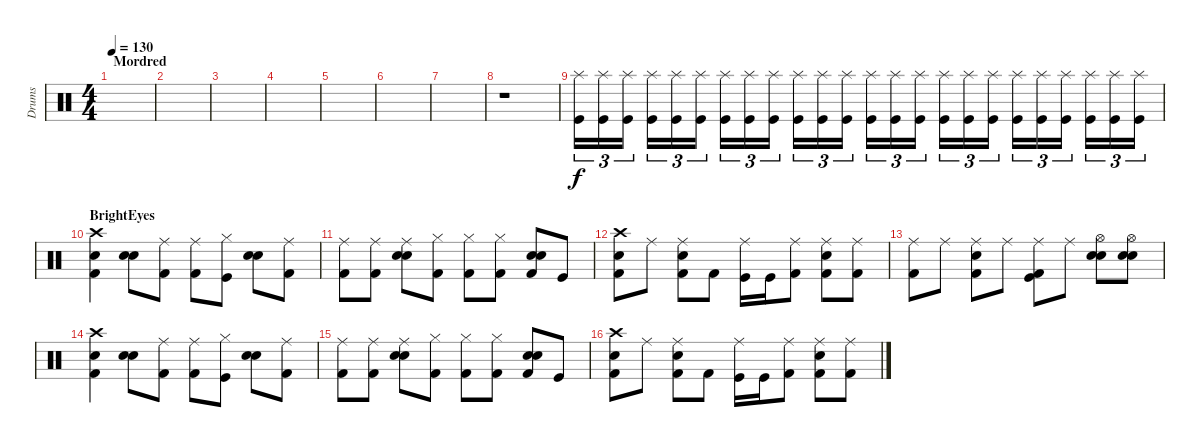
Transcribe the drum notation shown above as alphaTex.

\track ("Drums" "Drums") {instrument percussion}
\staff {score}
\articulation defaults
\ts (4 4)
\section ("" "Mordred")
\tempo 130
\tempo 95
\tempo 130
\clef neutral
\ks c
|
|
|
|
|
|
|
r.1{volume 0} |
("Kick (hit)" "Splash (hit)").16{tu (3 2) volume 13} ("Kick (hit)" "Splash (hit)").16{tu (3 2)} ("Kick (hit)" "Splash (hit)").16{tu (3 2)} ("Kick (hit)" "Splash (hit)").16{tu (3 2)} ("Kick (hit)" "Splash (hit)").16{tu (3 2)} ("Kick (hit)" "Splash (hit)").16{tu (3 2)} ("Kick (hit)" "Splash (hit)").16{tu (3 2)} ("Kick (hit)" "Splash (hit)").16{tu (3 2)} ("Kick (hit)" "Splash (hit)").16{tu (3 2)} ("Kick (hit)" "Splash (hit)").16{tu (3 2)} ("Kick (hit)" "Splash (hit)").16{tu (3 2)} ("Kick (hit)" "Splash (hit)").16{tu (3 2)} ("Kick (hit)" "Splash (hit)").16{tu (3 2)} ("Kick (hit)" "Splash (hit)").16{tu (3 2)} ("Kick (hit)" "Splash (hit)").16{tu (3 2)} ("Kick (hit)" "Splash (hit)").16{tu (3 2)} ("Kick (hit)" "Splash (hit)").16{tu (3 2)} ("Kick (hit)" "Splash (hit)").16{tu (3 2)} ("Kick (hit)" "Splash (hit)").16{tu (3 2)} ("Kick (hit)" "Splash (hit)").16{tu (3 2)} ("Kick (hit)" "Splash (hit)").16{tu (3 2)} ("Kick (hit)" "Splash (hit)").16{tu (3 2)} ("Kick (hit)" "Splash (hit)").16{tu (3 2)} ("Kick (hit)" "Splash (hit)").16{tu (3 2)} |
\section ("" "BrightEyes")
("Kick (hit) 2" "Snare (hit) 2" "Crash high (hit)").4 ("Snare (hit) 2" "Electric Snare (hit)").8 ("Ride (middle)" "Kick (hit) 2").8 ("Ride (middle)" "Kick (hit) 2").8 ("Hi-Hat (closed)" "Kick (hit)").8 ("Snare (hit) 2" "Electric Snare (hit)").8 ("Ride (middle)" "Kick (hit) 2").8 |
("Ride (middle)" "Kick (hit) 2").8 ("Ride (middle)" "Kick (hit) 2").8 ("Ride (middle)" "Snare (hit) 2" "Electric Snare (hit)").8 ("Hi-Hat (closed)" "Kick (hit) 2").8 ("Hi-Hat (closed)" "Kick (hit) 2").8 ("Hi-Hat (closed)" "Kick (hit) 2").8 ("Electric Snare (hit)" "Kick (hit) 2" "Snare (hit) 2").8 "Kick (hit)".8 |
("Crash high (hit)" "Kick (hit) 2" "Snare (hit) 2").8 "Ride (middle)".8 ("Ride (middle)" "Snare (hit) 2" "Kick (hit) 2").8 "Kick (hit) 2".8 ("Ride (middle)" "Kick (hit)").16 "Kick (hit)".16 ("Ride (middle)" "Kick (hit) 2").8 ("Ride (middle)" "Kick (hit) 2" "Snare (hit) 2").8 ("Ride (middle)" "Kick (hit) 2").8 |
("Ride (middle)" "Kick (hit) 2").8 "Ride (middle)".8 ("Ride (middle)" "Snare (hit) 2" "Kick (hit) 2").8 "Ride (middle)".8 ("Ride (middle)" "Kick (hit) 2" "Kick (hit)").8 "Ride (middle)".8 ("Hi-Hat (open)" "Electric Snare (hit)" "Snare (hit) 2").8 ("Hi-Hat (open)" "Electric Snare (hit)" "Snare (hit) 2").8 |
("Kick (hit) 2" "Snare (hit) 2" "Crash high (hit)").4 ("Snare (hit) 2" "Electric Snare (hit)").8 ("Ride (middle)" "Kick (hit) 2").8 ("Ride (middle)" "Kick (hit) 2").8 ("Hi-Hat (closed)" "Kick (hit)").8 ("Snare (hit) 2" "Electric Snare (hit)").8 ("Ride (middle)" "Kick (hit) 2").8 |
("Ride (middle)" "Kick (hit) 2").8 ("Ride (middle)" "Kick (hit) 2").8 ("Ride (middle)" "Snare (hit) 2" "Electric Snare (hit)").8 ("Hi-Hat (closed)" "Kick (hit) 2").8 ("Hi-Hat (closed)" "Kick (hit) 2").8 ("Hi-Hat (closed)" "Kick (hit) 2").8 ("Electric Snare (hit)" "Kick (hit) 2" "Snare (hit) 2").8 "Kick (hit)".8 |
("Crash high (hit)" "Kick (hit) 2" "Snare (hit) 2").8 "Ride (middle)".8 ("Ride (middle)" "Snare (hit) 2" "Kick (hit) 2").8 "Kick (hit) 2".8 ("Ride (middle)" "Kick (hit)").16 "Kick (hit)".16 ("Ride (middle)" "Kick (hit) 2").8 ("Ride (middle)" "Kick (hit) 2" "Snare (hit) 2").8 ("Ride (middle)" "Kick (hit) 2").8
